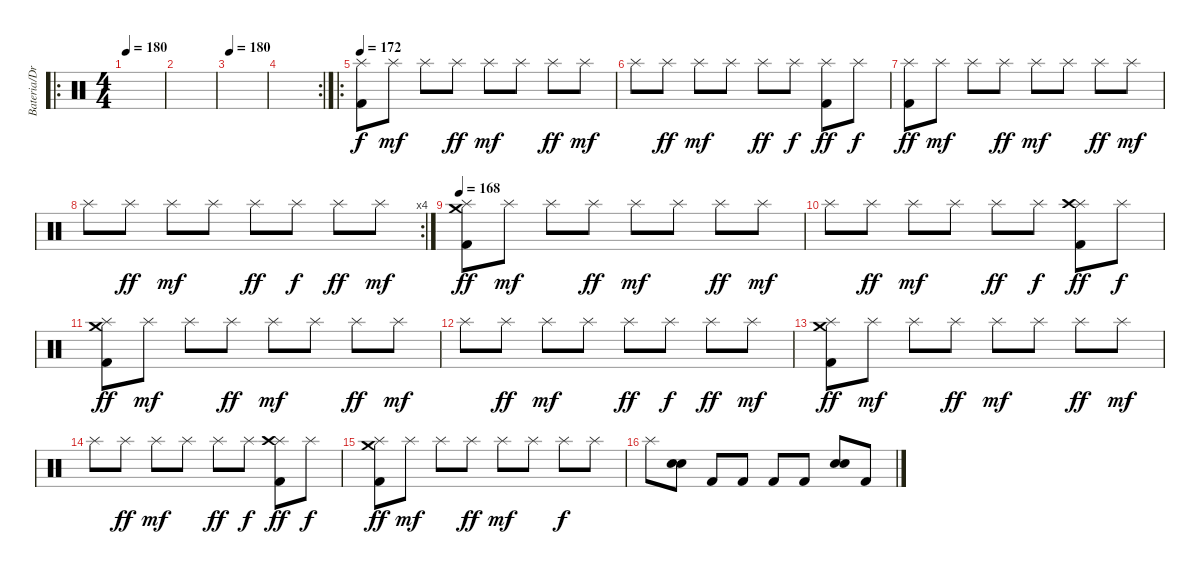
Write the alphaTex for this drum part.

\track ("Bateria/Drums" "Bateria/Dr") {instrument percussion}
\staff {score}
\articulation defaults
\ro
\ts (4 4)
\tempo 180
\clef neutral
\ks c
|
|
\tempo 180
|
\rc 2
|
\ro
\tempo 172
("Kick (hit) 2" "Splash (hit)").8 "Splash (hit)".8{dy mf} "Splash (hit)".8 "Splash (hit)".8{dy ff} "Splash (hit)".8{dy mf} "Splash (hit)".8 "Splash (hit)".8{dy ff} "Splash (hit)".8{dy mf} |
"Splash (hit)".8 "Splash (hit)".8{dy ff} "Splash (hit)".8{dy mf} "Splash (hit)".8 "Splash (hit)".8{dy ff} "Splash (hit)".8{dy f} ("Kick (hit) 2" "Splash (hit)").8{dy ff} "Splash (hit)".8{dy f} |
("Kick (hit) 2" "Splash (hit)").8{dy ff} "Splash (hit)".8{dy mf} "Splash (hit)".8 "Splash (hit)".8{dy ff} "Splash (hit)".8{dy mf} "Splash (hit)".8 "Splash (hit)".8{dy ff} "Splash (hit)".8{dy mf} |
\rc 4 "Splash (hit)".8 "Splash (hit)".8{dy ff} "Splash (hit)".8{dy mf} "Splash (hit)".8 "Splash (hit)".8{dy ff} "Splash (hit)".8{dy f} "Splash (hit)".8{dy ff} "Splash (hit)".8{dy mf}
|
\tempo 168
("Kick (hit) 2" "Splash (hit)" "Crash medium (hit)").8{dy ff} "Splash (hit)".8{dy mf} "Splash (hit)".8 "Splash (hit)".8{dy ff} "Splash (hit)".8{dy mf} "Splash (hit)".8 "Splash (hit)".8{dy ff} "Splash (hit)".8{dy mf} |
"Splash (hit)".8 "Splash (hit)".8{dy ff} "Splash (hit)".8{dy mf} "Splash (hit)".8 "Splash (hit)".8{dy ff} "Splash (hit)".8{dy f} ("Kick (hit) 2" "Splash (hit)" "Crash high (hit)").8{dy ff} "Splash (hit)".8{dy f} |
("Kick (hit) 2" "Splash (hit)" "Crash medium (hit)").8{dy ff} "Splash (hit)".8{dy mf} "Splash (hit)".8 "Splash (hit)".8{dy ff} "Splash (hit)".8{dy mf} "Splash (hit)".8 "Splash (hit)".8{dy ff} "Splash (hit)".8{dy mf} |
"Splash (hit)".8 "Splash (hit)".8{dy ff} "Splash (hit)".8{dy mf} "Splash (hit)".8 "Splash (hit)".8{dy ff} "Splash (hit)".8{dy f} "Splash (hit)".8{dy ff} "Splash (hit)".8{dy mf} |
("Kick (hit) 2" "Splash (hit)" "Crash medium (hit)").8{dy ff} "Splash (hit)".8{dy mf} "Splash (hit)".8 "Splash (hit)".8{dy ff} "Splash (hit)".8{dy mf} "Splash (hit)".8 "Splash (hit)".8{dy ff} "Splash (hit)".8{dy mf} |
"Splash (hit)".8 "Splash (hit)".8{dy ff} "Splash (hit)".8{dy mf} "Splash (hit)".8 "Splash (hit)".8{dy ff} "Splash (hit)".8{dy f} ("Kick (hit) 2" "Splash (hit)" "Crash high (hit)").8{dy ff} "Splash (hit)".8{dy f} |
("Kick (hit) 2" "Splash (hit)" "Crash medium (hit)").8{dy ff} "Splash (hit)".8{dy mf} "Splash (hit)".8 "Splash (hit)".8{dy ff} "Splash (hit)".8{dy mf} "Splash (hit)".8 "Splash (hit)".8{dy f} "Splash (hit)".8 |
"Splash (hit)".8 ("Electric Snare (hit)" "Electric Snare (hit)").8{bd 480} "Kick (hit) 2".8 "Kick (hit) 2".8 "Kick (hit) 2".8 "Kick (hit) 2".8 ("Electric Snare (hit)" "Electric Snare (hit)").8{bd 480} "Kick (hit) 2".8
